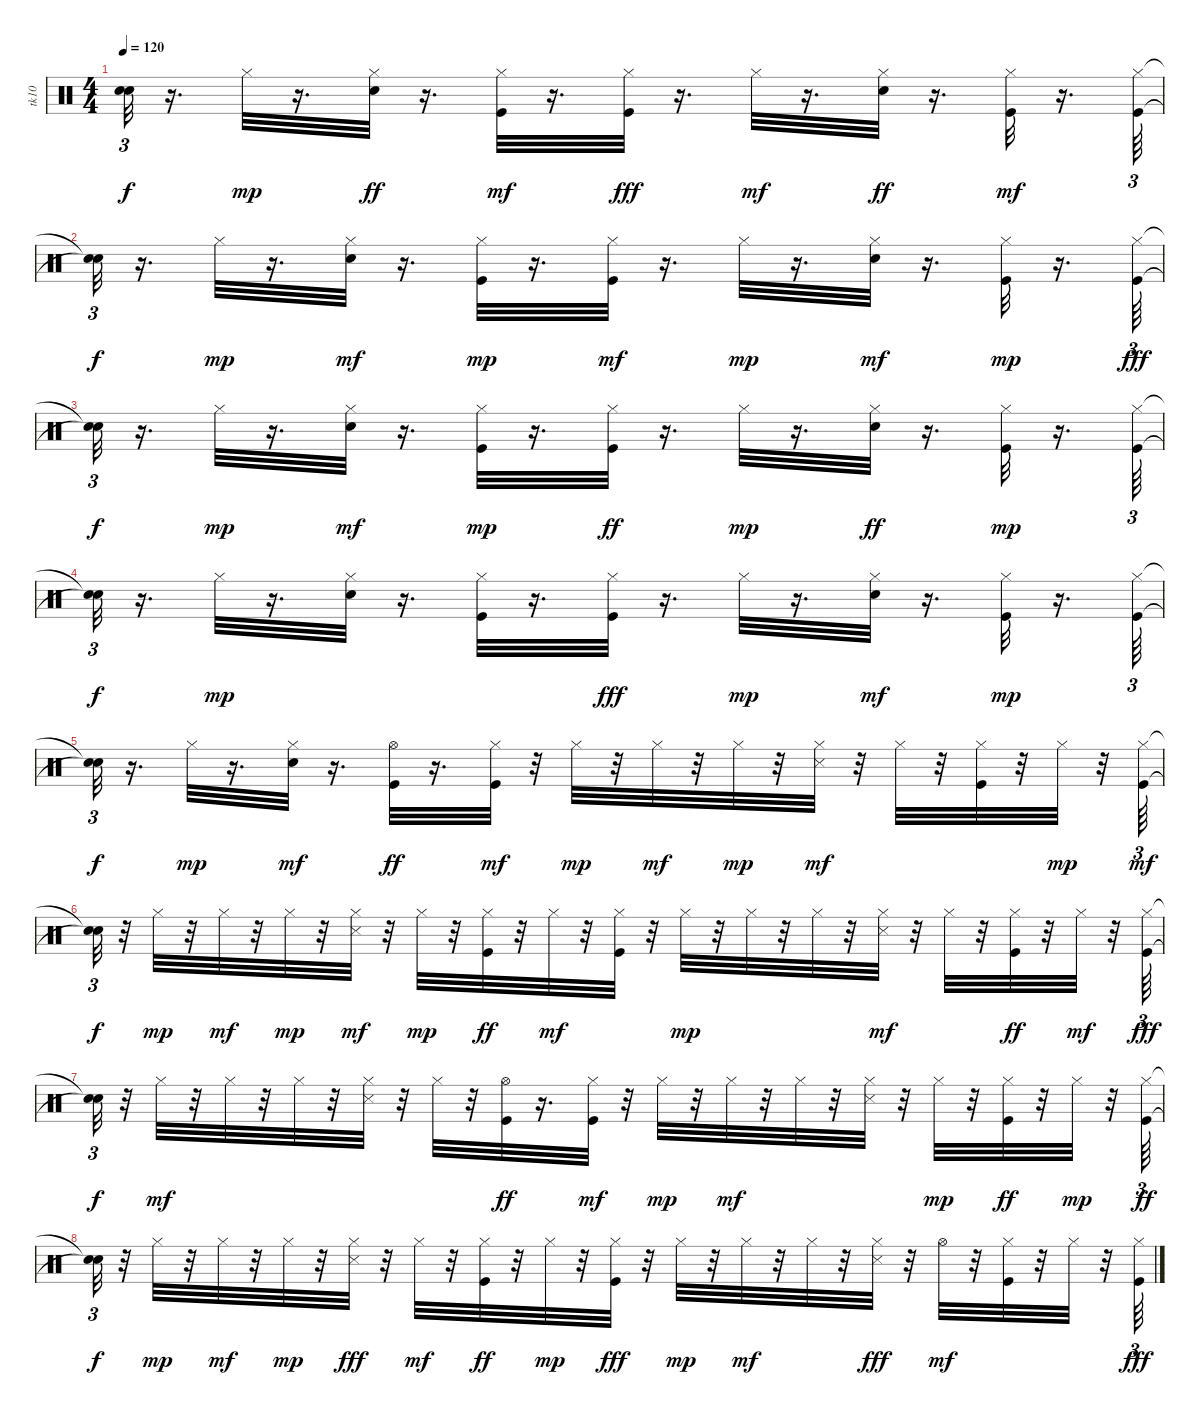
\track ("tk10" "tk10") {instrument percussion}
\staff {score}
\articulation defaults
\ts (4 4)
\tempo 120
\clef neutral
\ks c
("Snare (hit)"{t} "Snare (hit)"{t}).32{tu (3 2) dy f} r.16{d} "Hi-Hat (closed)".32{dy mp} r.16{d} ("Hi-Hat (closed)" "Snare (hit) 2").32{dy ff} r.16{d} ("Kick (hit)" "Hi-Hat (closed)").32{dy mf} r.16{d} ("Hi-Hat (closed)" "Kick (hit)").32{dy fff} r.16{d} "Hi-Hat (closed)".32{dy mf} r.16{d} ("Hi-Hat (closed)" "Snare (hit) 2").32{dy ff} r.16{d} ("Kick (hit)" "Hi-Hat (closed)").32{dy mf} r.16{d} ("Kick (hit)" "Hi-Hat (closed)").64{tu (3 2)} |
("Snare (hit)"{t} "Snare (hit)"{t}).32{tu (3 2) dy f} r.16{d} "Hi-Hat (closed)".32{dy mp} r.16{d} ("Snare (hit) 2" "Hi-Hat (closed)").32{dy mf} r.16{d} ("Kick (hit)" "Hi-Hat (closed)").32{dy mp} r.16{d} ("Kick (hit)" "Hi-Hat (closed)").32{dy mf} r.16{d} "Hi-Hat (closed)".32{dy mp} r.16{d} ("Snare (hit) 2" "Hi-Hat (closed)").32{dy mf} r.16{d} ("Kick (hit)" "Hi-Hat (closed)").32{dy mp} r.16{d} ("Hi-Hat (closed)" "Kick (hit)").64{tu (3 2) dy fff} |
("Snare (hit)"{t} "Snare (hit)"{t}).32{tu (3 2) dy f} r.16{d} "Hi-Hat (closed)".32{dy mp} r.16{d} ("Snare (hit) 2" "Hi-Hat (closed)").32{dy mf} r.16{d} ("Kick (hit)" "Hi-Hat (closed)").32{dy mp} r.16{d} ("Hi-Hat (closed)" "Kick (hit)").32{dy ff} r.16{d} "Hi-Hat (closed)".32{dy mp} r.16{d} ("Hi-Hat (closed)" "Snare (hit) 2").32{dy ff} r.16{d} ("Kick (hit)" "Hi-Hat (closed)").32{dy mp} r.16{d} ("Kick (hit)" "Hi-Hat (closed)").64{tu (3 2)} |
("Snare (hit)"{t} "Snare (hit)"{t}).32{tu (3 2) dy f} r.16{d} "Hi-Hat (closed)".32{dy mp} r.16{d} ("Snare (hit) 2" "Hi-Hat (closed)").32 r.16{d} ("Kick (hit)" "Hi-Hat (closed)").32 r.16{d} ("Hi-Hat (closed)" "Kick (hit)").32{dy fff} r.16{d} "Hi-Hat (closed)".32{dy mp} r.16{d} ("Snare (hit) 2" "Hi-Hat (closed)").32{dy mf} r.16{d} ("Kick (hit)" "Hi-Hat (closed)").32{dy mp} r.16{d} ("Kick (hit)" "Hi-Hat (closed)").64{tu (3 2)} |
("Snare (hit)"{t} "Snare (hit)"{t}).32{tu (3 2) dy f} r.16{d} "Hi-Hat (closed)".32{dy mp} r.16{d} ("Snare (hit) 2" "Hi-Hat (closed)").32{dy mf} r.16{d} ("Hi-Hat (open)" "Kick (hit)").32{dy ff} r.16{d} ("Kick (hit)" "Hi-Hat (closed)").32{dy mf} r.32 "Hi-Hat (closed)".32{dy mp} r.32 "Hi-Hat (closed)".32{dy mf} r.32 "Hi-Hat (closed)".32{dy mp} r.32 ("Snare (side stick) 3" "Hi-Hat (closed)").32{dy mf} r.32 "Hi-Hat (closed)".32 r.32 ("Kick (hit)" "Hi-Hat (closed)").32 r.32 "Hi-Hat (closed)".32{dy mp} r.32 ("Kick (hit)" "Hi-Hat (closed)").64{tu (3 2) dy mf} |
("Snare (hit)"{t} "Snare (hit)"{t}).32{tu (3 2) dy f} r.32 "Hi-Hat (closed)".32{dy mp} r.32 "Hi-Hat (closed)".32{dy mf} r.32 "Hi-Hat (closed)".32{dy mp} r.32 ("Snare (side stick) 3" "Hi-Hat (closed)").32{dy mf} r.32 "Hi-Hat (closed)".32{dy mp} r.32 ("Hi-Hat (closed)" "Kick (hit)").32{dy ff} r.32 "Hi-Hat (closed)".32{dy mf} r.32 ("Kick (hit)" "Hi-Hat (closed)").32 r.32 "Hi-Hat (closed)".32{dy mp} r.32 "Hi-Hat (closed)".32 r.32 "Hi-Hat (closed)".32 r.32 ("Snare (side stick) 3" "Hi-Hat (closed)").32{dy mf} r.32 "Hi-Hat (closed)".32 r.32 ("Hi-Hat (closed)" "Kick (hit)").32{dy ff} r.32 "Hi-Hat (closed)".32{dy mf} r.32 ("Hi-Hat (closed)" "Kick (hit)").64{tu (3 2) dy fff} |
("Snare (hit)"{t} "Snare (hit)"{t}).32{tu (3 2) dy f} r.32 "Hi-Hat (closed)".32{dy mf} r.32 "Hi-Hat (closed)".32 r.32 "Hi-Hat (closed)".32 r.32 ("Snare (side stick) 3" "Hi-Hat (closed)").32 r.32 "Hi-Hat (closed)".32 r.32 ("Hi-Hat (open)" "Kick (hit)").32{dy ff} r.16{d} ("Kick (hit)" "Hi-Hat (closed)").32{dy mf} r.32 "Hi-Hat (closed)".32{dy mp} r.32 "Hi-Hat (closed)".32{dy mf} r.32 "Hi-Hat (closed)".32 r.32 ("Snare (side stick) 3" "Hi-Hat (closed)").32 r.32 "Hi-Hat (closed)".32{dy mp} r.32 ("Hi-Hat (closed)" "Kick (hit)").32{dy ff} r.32 "Hi-Hat (closed)".32{dy mp} r.32 ("Hi-Hat (closed)" "Kick (hit)").64{tu (3 2) dy ff} |
("Snare (hit)"{t} "Snare (hit)"{t}).32{tu (3 2) dy f} r.32 "Hi-Hat (closed)".32{dy mp} r.32 "Hi-Hat (closed)".32{dy mf} r.32 "Hi-Hat (closed)".32{dy mp} r.32 ("Hi-Hat (closed)" "Snare (side stick) 3").32{dy fff} r.32 "Hi-Hat (closed)".32{dy mf} r.32 ("Hi-Hat (closed)" "Kick (hit)").32{dy ff} r.32 "Hi-Hat (closed)".32{dy mp} r.32 ("Hi-Hat (closed)" "Kick (hit)").32{dy fff} r.32 "Hi-Hat (closed)".32{dy mp} r.32 "Hi-Hat (closed)".32{dy mf} r.32 "Hi-Hat (closed)".32 r.32 ("Hi-Hat (closed)" "Snare (side stick) 3").32{dy fff} r.32 "Hi-Hat (open)".32{dy mf} r.32 ("Kick (hit)" "Hi-Hat (closed)").32 r.32 "Hi-Hat (closed)".32 r.32 ("Hi-Hat (closed)" "Kick (hit)").64{tu (3 2) dy fff}
